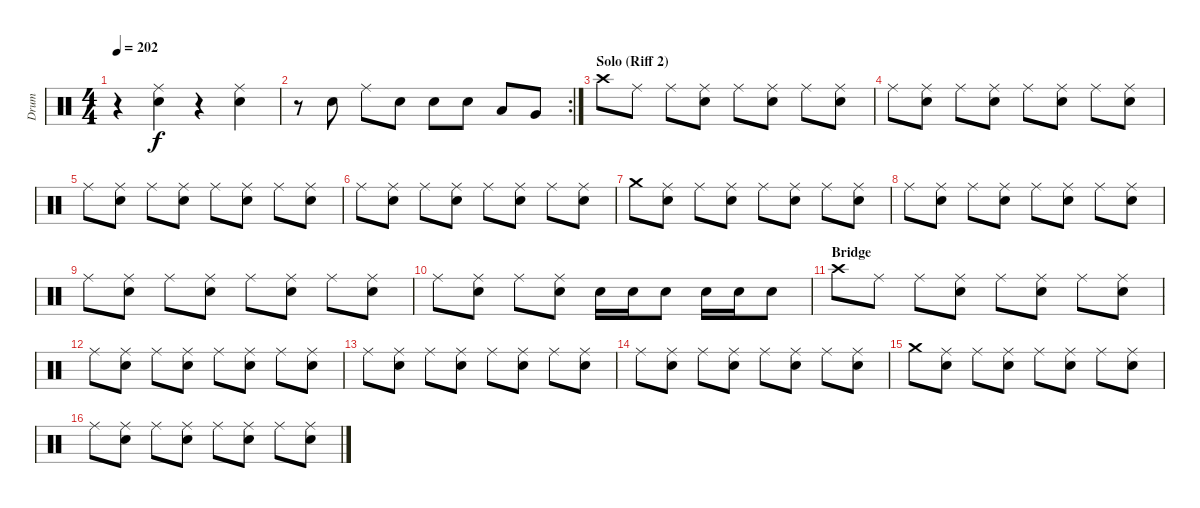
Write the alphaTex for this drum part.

\track ("Drum" "Drum") {instrument percussion}
\staff {score}
\articulation defaults
\ts (4 4)
\tempo 202
\clef neutral
\ks c
r.4{dy f} ("Ride (middle)" "Electric Snare (hit)").4 r.4 ("Ride (middle)" "Electric Snare (hit)").4 |
\rc 2
r.8 "Electric Snare (hit)".8 "Ride (middle)".8 "Electric Snare (hit)".8 "Electric Snare (hit)".8 "Electric Snare (hit)".8 "Low Tom (hit)".8 "Very Low Tom (hit)".8 |
\section ("" "Solo (Riff 2)")
"Crash high (hit)".8 "Ride (middle)".8 "Ride (middle)".8 ("Ride (middle)" "Electric Snare (hit)").8 "Ride (middle)".8 ("Ride (middle)" "Electric Snare (hit)").8 "Ride (middle)".8 ("Ride (middle)" "Electric Snare (hit)").8 |
"Ride (middle)".8 ("Ride (middle)" "Electric Snare (hit)").8 "Ride (middle)".8 ("Ride (middle)" "Electric Snare (hit)").8 "Ride (middle)".8 ("Ride (middle)" "Electric Snare (hit)").8 "Ride (middle)".8 ("Ride (middle)" "Electric Snare (hit)").8 |
"Ride (middle)".8 ("Ride (middle)" "Electric Snare (hit)").8 "Ride (middle)".8 ("Ride (middle)" "Electric Snare (hit)").8 "Ride (middle)".8 ("Ride (middle)" "Electric Snare (hit)").8 "Ride (middle)".8 ("Ride (middle)" "Electric Snare (hit)").8 |
"Ride (middle)".8 ("Ride (middle)" "Electric Snare (hit)").8 "Ride (middle)".8 ("Ride (middle)" "Electric Snare (hit)").8 "Ride (middle)".8 ("Ride (middle)" "Electric Snare (hit)").8 "Ride (middle)".8 ("Ride (middle)" "Electric Snare (hit)").8 |
"Crash medium (hit)".8 ("Ride (middle)" "Electric Snare (hit)").8 "Ride (middle)".8 ("Ride (middle)" "Electric Snare (hit)").8 "Ride (middle)".8 ("Ride (middle)" "Electric Snare (hit)").8 "Ride (middle)".8 ("Ride (middle)" "Electric Snare (hit)").8 |
"Ride (middle)".8 ("Ride (middle)" "Electric Snare (hit)").8 "Ride (middle)".8 ("Ride (middle)" "Electric Snare (hit)").8 "Ride (middle)".8 ("Ride (middle)" "Electric Snare (hit)").8 "Ride (middle)".8 ("Ride (middle)" "Electric Snare (hit)").8 |
"Ride (middle)".8 ("Ride (middle)" "Electric Snare (hit)").8 "Ride (middle)".8 ("Ride (middle)" "Electric Snare (hit)").8 "Ride (middle)".8 ("Ride (middle)" "Electric Snare (hit)").8 "Ride (middle)".8 ("Ride (middle)" "Electric Snare (hit)").8 |
"Ride (middle)".8 ("Ride (middle)" "Electric Snare (hit)").8 "Ride (middle)".8 ("Ride (middle)" "Electric Snare (hit)").8 "Electric Snare (hit)".16 "Electric Snare (hit)".16 "Electric Snare (hit)".8 "Electric Snare (hit)".16 "Electric Snare (hit)".16 "Electric Snare (hit)".8 |
\section ("" "Bridge")
"Crash high (hit)".8 "Ride (middle)".8 "Ride (middle)".8 ("Ride (middle)" "Electric Snare (hit)").8 "Ride (middle)".8 ("Ride (middle)" "Electric Snare (hit)").8 "Ride (middle)".8 ("Ride (middle)" "Electric Snare (hit)").8 |
"Ride (middle)".8 ("Ride (middle)" "Electric Snare (hit)").8 "Ride (middle)".8 ("Ride (middle)" "Electric Snare (hit)").8 "Ride (middle)".8 ("Ride (middle)" "Electric Snare (hit)").8 "Ride (middle)".8 ("Ride (middle)" "Electric Snare (hit)").8 |
"Ride (middle)".8 ("Ride (middle)" "Electric Snare (hit)").8 "Ride (middle)".8 ("Ride (middle)" "Electric Snare (hit)").8 "Ride (middle)".8 ("Ride (middle)" "Electric Snare (hit)").8 "Ride (middle)".8 ("Ride (middle)" "Electric Snare (hit)").8 |
"Ride (middle)".8 ("Ride (middle)" "Electric Snare (hit)").8 "Ride (middle)".8 ("Ride (middle)" "Electric Snare (hit)").8 "Ride (middle)".8 ("Ride (middle)" "Electric Snare (hit)").8 "Ride (middle)".8 ("Ride (middle)" "Electric Snare (hit)").8 |
"Crash medium (hit)".8 ("Ride (middle)" "Electric Snare (hit)").8 "Ride (middle)".8 ("Ride (middle)" "Electric Snare (hit)").8 "Ride (middle)".8 ("Ride (middle)" "Electric Snare (hit)").8 "Ride (middle)".8 ("Ride (middle)" "Electric Snare (hit)").8 |
"Ride (middle)".8 ("Ride (middle)" "Electric Snare (hit)").8 "Ride (middle)".8 ("Ride (middle)" "Electric Snare (hit)").8 "Ride (middle)".8 ("Ride (middle)" "Electric Snare (hit)").8 "Ride (middle)".8 ("Ride (middle)" "Electric Snare (hit)").8
